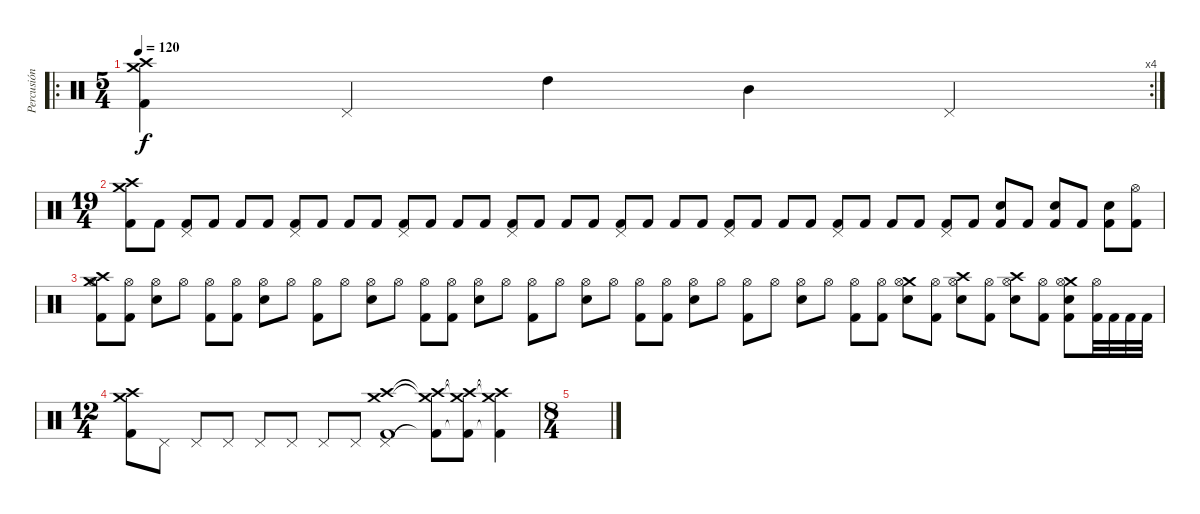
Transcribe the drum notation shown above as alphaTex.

\track ("Percusión" "Percusión") {instrument percussion}
\staff {score}
\articulation defaults
\ro
\rc 4
\ts (5 4)
\tempo 120
\clef neutral
\ks c
("Crash medium (hit)" "Crash high (hit)" "Kick (hit) 2").4{dy f} "Pedal Hi-Hat (hit)".4 "High Tom (hit)".4 "Mid Tom (hit)".4 "Pedal Hi-Hat (hit)".4 |
\ts (19 4)
("Crash medium (hit)" "Crash high (hit)" "Kick (hit) 2").8 "Kick (hit) 2".8 ("Pedal Hi-Hat (hit)" "Kick (hit) 2").8 "Kick (hit) 2".8 "Kick (hit) 2".8 "Kick (hit) 2".8 ("Pedal Hi-Hat (hit)" "Kick (hit) 2").8 "Kick (hit) 2".8 "Kick (hit) 2".8 "Kick (hit) 2".8 ("Pedal Hi-Hat (hit)" "Kick (hit) 2").8 "Kick (hit) 2".8 "Kick (hit) 2".8 "Kick (hit) 2".8 ("Pedal Hi-Hat (hit)" "Kick (hit) 2").8 "Kick (hit) 2".8 "Kick (hit) 2".8 "Kick (hit) 2".8 ("Pedal Hi-Hat (hit)" "Kick (hit) 2").8 "Kick (hit) 2".8 "Kick (hit) 2".8 "Kick (hit) 2".8 ("Pedal Hi-Hat (hit)" "Kick (hit) 2").8 "Kick (hit) 2".8 "Kick (hit) 2".8 "Kick (hit) 2".8 ("Pedal Hi-Hat (hit)" "Kick (hit) 2").8 "Kick (hit) 2".8 "Kick (hit) 2".8 "Kick (hit) 2".8 ("Pedal Hi-Hat (hit)" "Kick (hit) 2").8 "Kick (hit) 2".8 ("Electric Snare (hit)" "Kick (hit) 2").8 "Kick (hit) 2".8 ("Electric Snare (hit)" "Kick (hit) 2").8 "Kick (hit) 2".8 ("Electric Snare (hit)" "Kick (hit) 2").8 ("Hi-Hat (open)" "Kick (hit) 2").8 |
("Crash medium (hit)" "Crash high (hit)" "Hi-Hat (open)" "Kick (hit) 2").8 ("Hi-Hat (open)" "Kick (hit) 2").8 ("Hi-Hat (open)" "Electric Snare (hit)").8 "Hi-Hat (open)".8 ("Hi-Hat (open)" "Kick (hit) 2").8 ("Hi-Hat (open)" "Kick (hit) 2").8 ("Hi-Hat (open)" "Electric Snare (hit)").8 "Hi-Hat (open)".8 ("Hi-Hat (open)" "Kick (hit) 2").8 "Hi-Hat (open)".8 ("Hi-Hat (open)" "Electric Snare (hit)").8 "Hi-Hat (open)".8 ("Hi-Hat (open)" "Kick (hit) 2").8 ("Hi-Hat (open)" "Kick (hit) 2").8 ("Hi-Hat (open)" "Electric Snare (hit)").8 "Hi-Hat (open)".8 ("Hi-Hat (open)" "Kick (hit) 2").8 "Hi-Hat (open)".8 ("Hi-Hat (open)" "Electric Snare (hit)").8 "Hi-Hat (open)".8 ("Hi-Hat (open)" "Kick (hit) 2").8 ("Hi-Hat (open)" "Kick (hit) 2").8 ("Hi-Hat (open)" "Electric Snare (hit)").8 "Hi-Hat (open)".8 ("Hi-Hat (open)" "Kick (hit) 2").8 "Hi-Hat (open)".8 ("Hi-Hat (open)" "Electric Snare (hit)").8 "Hi-Hat (open)".8 ("Hi-Hat (open)" "Kick (hit) 2").8 ("Hi-Hat (open)" "Kick (hit) 2").8 ("Crash medium (hit)" "Hi-Hat (open)" "Electric Snare (hit)").8 ("Hi-Hat (open)" "Kick (hit) 2").8 ("Crash high (hit)" "Hi-Hat (open)" "Electric Snare (hit)").8 ("Hi-Hat (open)" "Kick (hit) 2").8 ("Crash high (hit)" "Hi-Hat (open)" "Electric Snare (hit)").8 ("Hi-Hat (open)" "Kick (hit) 2").8 ("Crash medium (hit)" "Hi-Hat (open)" "Electric Snare (hit)" "Kick (hit) 2").8 ("Hi-Hat (open)" "Kick (hit) 2").32 "Kick (hit) 2".32 "Kick (hit) 2".32 "Kick (hit) 2".32 |
\ts (12 4)
("Crash medium (hit)" "Crash high (hit)" "Kick (hit) 2").8 "Pedal Hi-Hat (hit)".8 "Pedal Hi-Hat (hit)".8 "Pedal Hi-Hat (hit)".8 "Pedal Hi-Hat (hit)".8 "Pedal Hi-Hat (hit)".8 "Pedal Hi-Hat (hit)".8 "Pedal Hi-Hat (hit)".8 ("Crash medium (hit)" "Crash high (hit)" "Pedal Hi-Hat (hit)" "Kick (hit) 2").1 ("Crash medium (hit)"{t} "Crash high (hit)"{t} "Kick (hit) 2"{t}).8 ("Crash medium (hit)"{t} "Crash high (hit)"{t} "Kick (hit) 2"{t}).8 ("Crash medium (hit)"{t} "Crash high (hit)"{t} "Kick (hit) 2"{t}).4 |
\ts (8 4)
